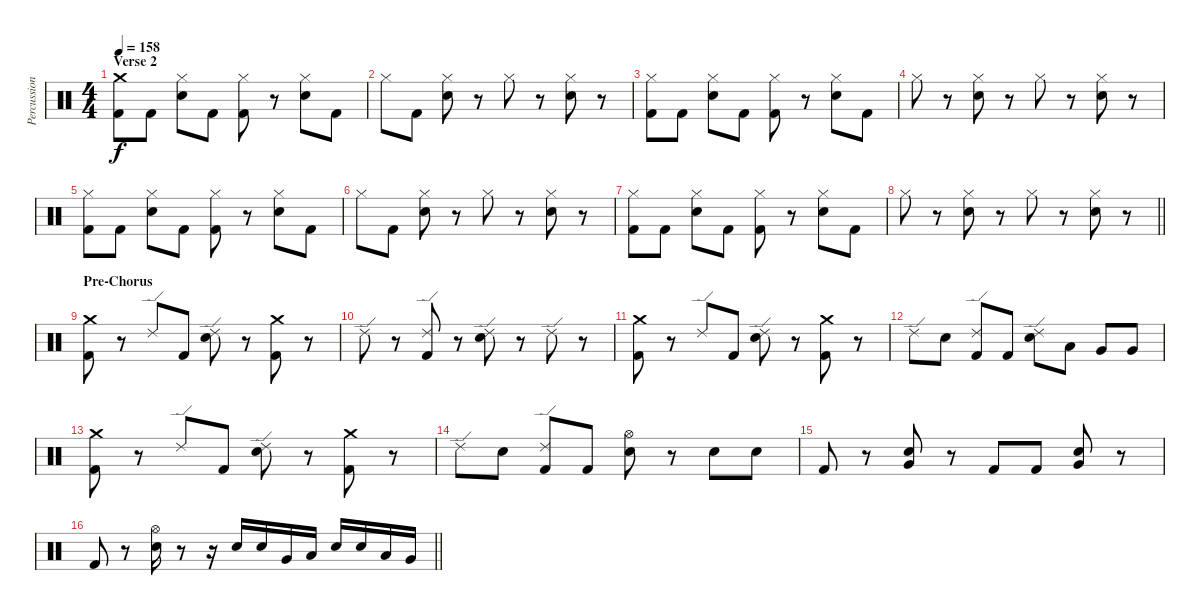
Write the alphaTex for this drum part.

\track ("Percussion" "Percussion") {instrument percussion}
\staff {score}
\articulation defaults
\ts (4 4)
\section ("" "Verse 2")
\tempo 158
\clef neutral
\ks c
("Crash medium (hit)" "Kick (hit) 2").8{dy f} "Kick (hit) 2".8 ("Hi-Hat (closed)" "Electric Snare (hit)").8 "Kick (hit) 2".8 ("Hi-Hat (closed)" "Kick (hit) 2").8 r.8 ("Hi-Hat (closed)" "Electric Snare (hit)").8 "Kick (hit) 2".8 |
"Hi-Hat (closed)".8 "Kick (hit) 2".8 ("Hi-Hat (closed)" "Electric Snare (hit)").8 r.8 "Hi-Hat (closed)".8 r.8 ("Hi-Hat (closed)" "Electric Snare (hit)").8 r.8 |
("Hi-Hat (closed)" "Kick (hit) 2").8 "Kick (hit) 2".8 ("Hi-Hat (closed)" "Electric Snare (hit)").8 "Kick (hit) 2".8 ("Hi-Hat (closed)" "Kick (hit) 2").8 r.8 ("Hi-Hat (closed)" "Electric Snare (hit)").8 "Kick (hit) 2".8 |
"Hi-Hat (closed)".8 r.8 ("Hi-Hat (closed)" "Electric Snare (hit)").8 r.8 "Hi-Hat (closed)".8 r.8 ("Hi-Hat (closed)" "Electric Snare (hit)").8 r.8 |
("Hi-Hat (closed)" "Kick (hit) 2").8 "Kick (hit) 2".8 ("Hi-Hat (closed)" "Electric Snare (hit)").8 "Kick (hit) 2".8 ("Hi-Hat (closed)" "Kick (hit) 2").8 r.8 ("Hi-Hat (closed)" "Electric Snare (hit)").8 "Kick (hit) 2".8 |
"Hi-Hat (closed)".8 "Kick (hit) 2".8 ("Hi-Hat (closed)" "Electric Snare (hit)").8 r.8 "Hi-Hat (closed)".8 r.8 ("Hi-Hat (closed)" "Electric Snare (hit)").8 r.8 |
("Hi-Hat (closed)" "Kick (hit) 2").8 "Kick (hit) 2".8 ("Hi-Hat (closed)" "Electric Snare (hit)").8 "Kick (hit) 2".8 ("Hi-Hat (closed)" "Kick (hit) 2").8 r.8 ("Hi-Hat (closed)" "Electric Snare (hit)").8 "Kick (hit) 2".8 |
\barLineRight lightlight "Hi-Hat (closed)".8
r.8 ("Hi-Hat (closed)" "Electric Snare (hit)").8 r.8 "Hi-Hat (closed)".8 r.8 ("Hi-Hat (closed)" "Electric Snare (hit)").8 r.8 |
\section ("" "Pre-Chorus")
("Crash medium (hit)" "Kick (hit) 2").8 r.8 "Ride (edge) 2".8 "Kick (hit) 2".8 ("Ride (edge) 2" "Electric Snare (hit)").8 r.8 ("Crash medium (hit)" "Kick (hit) 2").8 r.8 |
"Ride (edge) 2".8 r.8 ("Ride (edge) 2" "Kick (hit) 2").8 r.8 ("Ride (edge) 2" "Electric Snare (hit)").8 r.8 "Ride (edge) 2".8 r.8 |
("Crash medium (hit)" "Kick (hit) 2").8 r.8 "Ride (edge) 2".8 "Kick (hit) 2".8 ("Ride (edge) 2" "Electric Snare (hit)").8 r.8 ("Crash medium (hit)" "Kick (hit) 2").8 r.8 |
"Ride (edge) 2".8 "Electric Snare (hit)".8 ("Ride (edge) 2" "Kick (hit) 2").8 "Kick (hit) 2".8 ("Ride (edge) 2" "Electric Snare (hit)").8 "Low Tom (hit)".8 "Very Low Tom (hit)".8 "Very Low Tom (hit)".8 |
("Crash medium (hit)" "Kick (hit) 2").8 r.8 "Ride (edge) 2".8 "Kick (hit) 2".8 ("Ride (edge) 2" "Electric Snare (hit)").8 r.8 ("Crash medium (hit)" "Kick (hit) 2").8 r.8 |
"Ride (edge) 2".8 "Electric Snare (hit)".8 ("Ride (edge) 2" "Kick (hit) 2").8 "Kick (hit) 2".8 ("Hi-Hat (open)" "Electric Snare (hit)").8 r.8 "Electric Snare (hit)".8 "Electric Snare (hit)".8 |
"Kick (hit) 2".8 r.8 ("Electric Snare (hit)" "Very Low Tom (hit)").8 r.8 "Kick (hit) 2".8 "Kick (hit) 2".8 ("Electric Snare (hit)" "Very Low Tom (hit)").8 r.8 |
\barLineRight lightlight "Kick (hit) 2".8
r.8 ("Hi-Hat (open)" "Electric Snare (hit)").16 r.8 r.16 "Electric Snare (hit)".16 "Electric Snare (hit)".16 "Very Low Tom (hit)".16 "Low Tom (hit)".16 "Electric Snare (hit)".16 "Electric Snare (hit)".16 "Low Tom (hit)".16 "Very Low Tom (hit)".16
